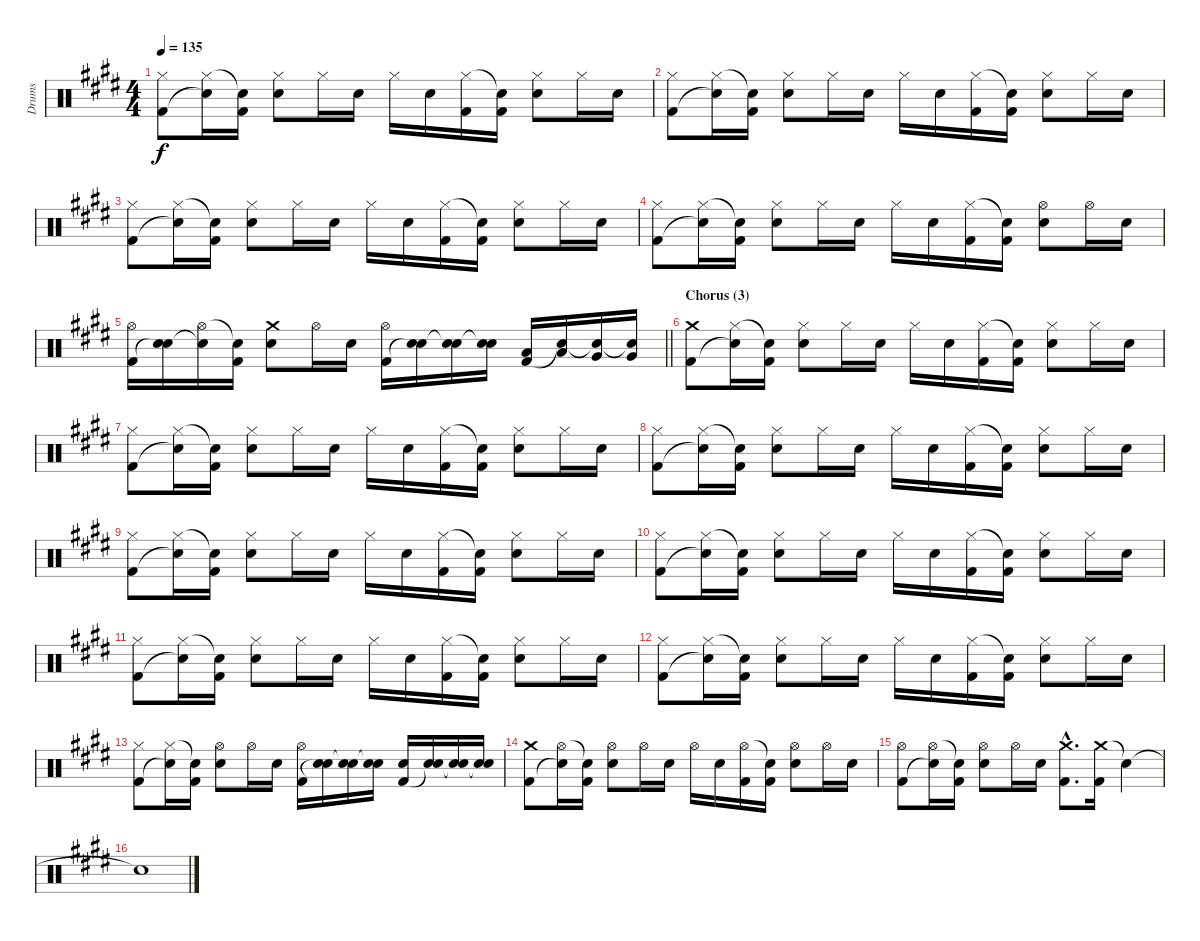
\track ("Drums" "Drums") {instrument percussion}
\staff {score}
\articulation defaults
\ts (4 4)
\tempo 135
\clef neutral
\ks c#minor
("Hi-Hat (closed)" "Kick (hit) 2").8{dy f} ("Hi-Hat (closed)" "Snare (hit)"{t}).16 ("Snare (hit)"{t} "Kick (hit) 2").16 ("Hi-Hat (closed)" "Electric Snare (hit)").8 "Hi-Hat (closed)".16 "Electric Snare (hit)".16 "Hi-Hat (closed)".16 "Electric Snare (hit)".16 ("Hi-Hat (closed)" "Kick (hit) 2").16 ("Snare (hit)"{t} "Kick (hit) 2").16 ("Hi-Hat (closed)" "Electric Snare (hit)").8 "Hi-Hat (closed)".16 "Electric Snare (hit)".16 |
("Hi-Hat (closed)" "Kick (hit) 2").8 ("Hi-Hat (closed)" "Snare (hit)"{t}).16 ("Snare (hit)"{t} "Kick (hit) 2").16 ("Hi-Hat (closed)" "Electric Snare (hit)").8 "Hi-Hat (closed)".16 "Electric Snare (hit)".16 "Hi-Hat (closed)".16 "Electric Snare (hit)".16 ("Hi-Hat (closed)" "Kick (hit) 2").16 ("Snare (hit)"{t} "Kick (hit) 2").16 ("Hi-Hat (closed)" "Electric Snare (hit)").8 "Hi-Hat (closed)".16 "Electric Snare (hit)".16 |
("Hi-Hat (closed)" "Kick (hit) 2").8 ("Hi-Hat (closed)" "Snare (hit)"{t}).16 ("Snare (hit)"{t} "Kick (hit) 2").16 ("Hi-Hat (closed)" "Electric Snare (hit)").8 "Hi-Hat (closed)".16 "Electric Snare (hit)".16 "Hi-Hat (closed)".16 "Electric Snare (hit)".16 ("Hi-Hat (closed)" "Kick (hit) 2").16 ("Snare (hit)"{t} "Kick (hit) 2").16 ("Hi-Hat (closed)" "Electric Snare (hit)").8 "Hi-Hat (closed)".16 "Electric Snare (hit)".16 |
("Hi-Hat (closed)" "Kick (hit) 2").8 ("Hi-Hat (closed)" "Snare (hit)"{t}).16 ("Snare (hit)"{t} "Kick (hit) 2").16 ("Hi-Hat (closed)" "Electric Snare (hit)").8 "Hi-Hat (closed)".16 "Electric Snare (hit)".16 "Hi-Hat (closed)".16 "Electric Snare (hit)".16 ("Hi-Hat (closed)" "Kick (hit) 2").16 ("Snare (hit)"{t} "Kick (hit) 2").16 ("Hi-Hat (open)" "Electric Snare (hit)").8 "Hi-Hat (open)".16 "Electric Snare (hit)".16 |
\barLineRight lightlight
("Hi-Hat (open)" "Kick (hit) 2").16 ("Electric Snare (hit)" "Snare (hit)"{t}).16 ("Hi-Hat (open)" "Snare (hit)"{t}).16 ("Snare (hit)"{t} "Kick (hit) 2").16 ("Crash medium (hit)" "Electric Snare (hit)").8 "Hi-Hat (open)".16 "Electric Snare (hit)".16 ("Hi-Hat (open)" "Kick (hit) 2").16 ("Electric Snare (hit)" "Snare (hit)"{t}).16 ("Electric Snare (hit)" "Snare (hit)"{t}).16 ("Electric Snare (hit)" "Snare (hit)"{t}).16 ("Low Tom (hit)" "Kick (hit) 2").16 ("Low Tom (hit)" "Snare (hit)"{t}).16 ("Very Low Tom (hit)" "Snare (hit)"{t}).16 ("Very Low Tom (hit)" "Snare (hit)"{t}).16 |
\section ("" "Chorus (3)")
("Crash medium (hit)" "Kick (hit) 2").8 ("Hi-Hat (closed)" "Snare (hit)"{t}).16 ("Snare (hit)"{t} "Kick (hit) 2").16 ("Hi-Hat (closed)" "Electric Snare (hit)").8 "Hi-Hat (closed)".16 "Electric Snare (hit)".16 "Hi-Hat (closed)".16 "Electric Snare (hit)".16 ("Hi-Hat (closed)" "Kick (hit) 2").16 ("Snare (hit)"{t} "Kick (hit) 2").16 ("Hi-Hat (closed)" "Electric Snare (hit)").8 "Hi-Hat (closed)".16 "Electric Snare (hit)".16 |
("Hi-Hat (closed)" "Kick (hit) 2").8 ("Hi-Hat (closed)" "Snare (hit)"{t}).16 ("Snare (hit)"{t} "Kick (hit) 2").16 ("Hi-Hat (closed)" "Electric Snare (hit)").8 "Hi-Hat (closed)".16 "Electric Snare (hit)".16 "Hi-Hat (closed)".16 "Electric Snare (hit)".16 ("Hi-Hat (closed)" "Kick (hit) 2").16 ("Snare (hit)"{t} "Kick (hit) 2").16 ("Hi-Hat (closed)" "Electric Snare (hit)").8 "Hi-Hat (closed)".16 "Electric Snare (hit)".16 |
("Hi-Hat (closed)" "Kick (hit) 2").8 ("Hi-Hat (closed)" "Snare (hit)"{t}).16 ("Snare (hit)"{t} "Kick (hit) 2").16 ("Hi-Hat (closed)" "Electric Snare (hit)").8 "Hi-Hat (closed)".16 "Electric Snare (hit)".16 "Hi-Hat (closed)".16 "Electric Snare (hit)".16 ("Hi-Hat (closed)" "Kick (hit) 2").16 ("Snare (hit)"{t} "Kick (hit) 2").16 ("Hi-Hat (closed)" "Electric Snare (hit)").8 "Hi-Hat (closed)".16 "Electric Snare (hit)".16 |
("Hi-Hat (closed)" "Kick (hit) 2").8 ("Hi-Hat (closed)" "Snare (hit)"{t}).16 ("Snare (hit)"{t} "Kick (hit) 2").16 ("Hi-Hat (closed)" "Electric Snare (hit)").8 "Hi-Hat (closed)".16 "Electric Snare (hit)".16 "Hi-Hat (closed)".16 "Electric Snare (hit)".16 ("Hi-Hat (closed)" "Kick (hit) 2").16 ("Snare (hit)"{t} "Kick (hit) 2").16 ("Hi-Hat (closed)" "Electric Snare (hit)").8 "Hi-Hat (closed)".16 "Electric Snare (hit)".16 |
("Hi-Hat (closed)" "Kick (hit) 2").8 ("Hi-Hat (closed)" "Snare (hit)"{t}).16 ("Snare (hit)"{t} "Kick (hit) 2").16 ("Hi-Hat (closed)" "Electric Snare (hit)").8 "Hi-Hat (closed)".16 "Electric Snare (hit)".16 "Hi-Hat (closed)".16 "Electric Snare (hit)".16 ("Hi-Hat (closed)" "Kick (hit) 2").16 ("Snare (hit)"{t} "Kick (hit) 2").16 ("Hi-Hat (closed)" "Electric Snare (hit)").8 "Hi-Hat (closed)".16 "Electric Snare (hit)".16 |
("Hi-Hat (closed)" "Kick (hit) 2").8 ("Hi-Hat (closed)" "Snare (hit)"{t}).16 ("Snare (hit)"{t} "Kick (hit) 2").16 ("Hi-Hat (closed)" "Electric Snare (hit)").8 "Hi-Hat (closed)".16 "Electric Snare (hit)".16 "Hi-Hat (closed)".16 "Electric Snare (hit)".16 ("Hi-Hat (closed)" "Kick (hit) 2").16 ("Snare (hit)"{t} "Kick (hit) 2").16 ("Hi-Hat (closed)" "Electric Snare (hit)").8 "Hi-Hat (closed)".16 "Electric Snare (hit)".16 |
("Hi-Hat (closed)" "Kick (hit) 2").8 ("Hi-Hat (closed)" "Snare (hit)"{t}).16 ("Snare (hit)"{t} "Kick (hit) 2").16 ("Hi-Hat (closed)" "Electric Snare (hit)").8 "Hi-Hat (closed)".16 "Electric Snare (hit)".16 "Hi-Hat (closed)".16 "Electric Snare (hit)".16 ("Hi-Hat (closed)" "Kick (hit) 2").16 ("Snare (hit)"{t} "Kick (hit) 2").16 ("Hi-Hat (closed)" "Electric Snare (hit)").8 "Hi-Hat (closed)".16 "Electric Snare (hit)".16 |
("Hi-Hat (closed)" "Kick (hit) 2").8 ("Hi-Hat (closed)" "Snare (hit)"{t}).16 ("Snare (hit)"{t} "Kick (hit) 2").16 ("Hi-Hat (open)" "Electric Snare (hit)").8 "Hi-Hat (open)".16 "Electric Snare (hit)".16 ("Hi-Hat (open)" "Kick (hit) 2").16 ("Electric Snare (hit)" "Snare (hit)"{t}).16 ("Electric Snare (hit)" "Snare (hit)"{t}).16 ("Electric Snare (hit)" "Snare (hit)"{t}).16 ("Electric Snare (hit)" "Kick (hit) 2").16 ("Electric Snare (hit)" "Snare (hit)"{t}).16 ("Electric Snare (hit)" "Snare (hit)"{t}).16 ("Electric Snare (hit)" "Snare (hit)"{t}).16 |
("Crash medium (hit)" "Kick (hit) 2").8 ("Hi-Hat (open)" "Snare (hit)"{t}).16 ("Snare (hit)"{t} "Kick (hit) 2").16 ("Hi-Hat (open)" "Electric Snare (hit)").8 "Hi-Hat (open)".16 "Electric Snare (hit)".16 "Hi-Hat (open)".16 "Electric Snare (hit)".16 ("Hi-Hat (open)" "Kick (hit) 2").16 ("Snare (hit)"{t} "Kick (hit) 2").16 ("Hi-Hat (open)" "Electric Snare (hit)").8 "Hi-Hat (open)".16 "Electric Snare (hit)".16 |
("Hi-Hat (open)" "Kick (hit) 2").8 ("Hi-Hat (open)" "Snare (hit)"{t}).16 ("Snare (hit)"{t} "Kick (hit) 2").16 ("Hi-Hat (open)" "Electric Snare (hit)").8 "Hi-Hat (open)".16 "Electric Snare (hit)".16 ("Crash medium (hit)"{hac} "Kick (hit) 2"{hac}).8{d} ("Crash medium (hit)" "Kick (hit) 2").16 "Snare (hit)"{t}.4 |
"Snare (hit)"{t}.1
